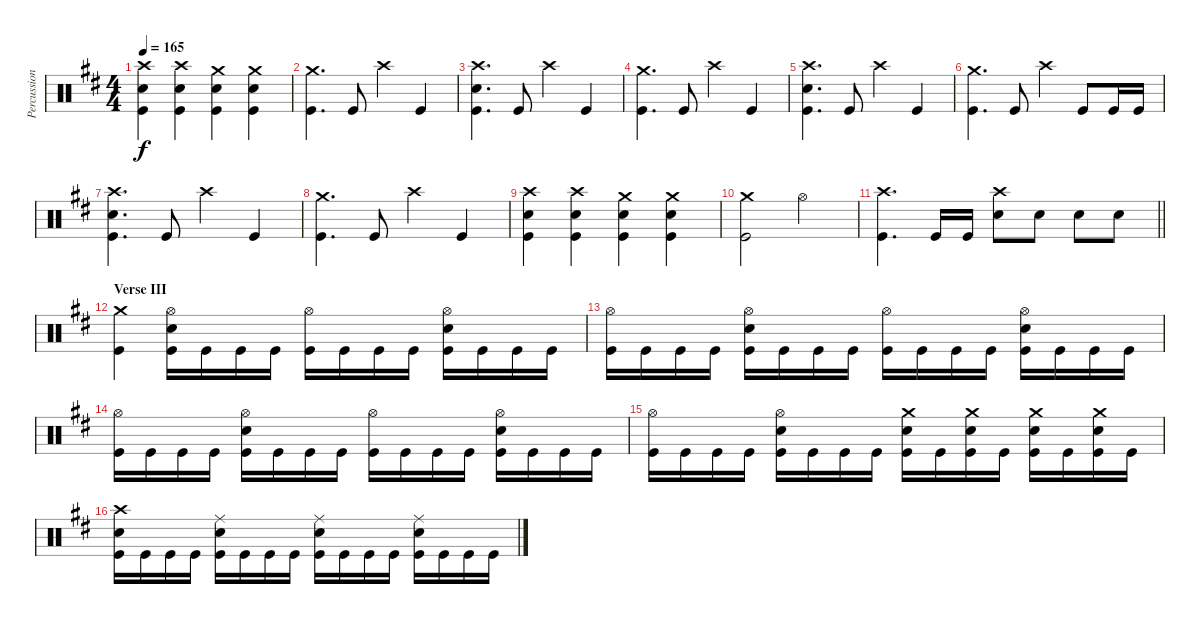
\track ("Percussion" "Percussion") {instrument percussion}
\staff {score}
\articulation defaults
\ts (4 4)
\tempo 165
\clef neutral
\ks d
("Crash high (hit)" "Electric Snare (hit)" "Kick (hit)").4{dy f} ("Crash high (hit)" "Electric Snare (hit)" "Kick (hit)").4 ("Crash medium (hit)" "Electric Snare (hit)" "Kick (hit)").4 ("Crash medium (hit)" "Electric Snare (hit)" "Kick (hit)").4 |
("Crash medium (hit)" "Kick (hit)").4{d} "Kick (hit)".8 "Crash high (hit)".4 "Kick (hit)".4 |
("Crash high (hit)" "Electric Snare (hit)" "Kick (hit)").4{d} "Kick (hit)".8 "Crash high (hit)".4 "Kick (hit)".4 |
("Crash medium (hit)" "Kick (hit)").4{d} "Kick (hit)".8 "Crash high (hit)".4 "Kick (hit)".4 |
("Crash high (hit)" "Electric Snare (hit)" "Kick (hit)").4{d} "Kick (hit)".8 "Crash high (hit)".4 "Kick (hit)".4 |
("Crash medium (hit)" "Kick (hit)").4{d} "Kick (hit)".8 "Crash high (hit)".4 "Kick (hit)".8 "Kick (hit)".16 "Kick (hit)".16 |
("Crash high (hit)" "Electric Snare (hit)" "Kick (hit)").4{d} "Kick (hit)".8 "Crash high (hit)".4 "Kick (hit)".4 |
("Crash medium (hit)" "Kick (hit)").4{d} "Kick (hit)".8 "Crash high (hit)".4 "Kick (hit)".4 |
("Crash high (hit)" "Electric Snare (hit)" "Kick (hit)").4 ("Crash high (hit)" "Electric Snare (hit)" "Kick (hit)").4 ("Crash medium (hit)" "Electric Snare (hit)" "Kick (hit)").4 ("Crash medium (hit)" "Electric Snare (hit)" "Kick (hit)").4 |
("Crash medium (hit)" "Kick (hit)").2 "Hi-Hat (open)".2 |
\barLineRight lightlight
("Crash high (hit)" "Kick (hit)").4{d} "Kick (hit)".16 "Kick (hit)".16 ("Crash high (hit)" "Electric Snare (hit)").8 "Electric Snare (hit)".8 "Electric Snare (hit)".8 "Electric Snare (hit)".8 |
\section ("" "Verse III")
("Crash medium (hit)" "Kick (hit)").4 ("Hi-Hat (open)" "Electric Snare (hit)" "Kick (hit)").16 "Kick (hit)".16 "Kick (hit)".16 "Kick (hit)".16 ("Hi-Hat (open)" "Kick (hit)").16 "Kick (hit)".16 "Kick (hit)".16 "Kick (hit)".16 ("Hi-Hat (open)" "Electric Snare (hit)" "Kick (hit)").16 "Kick (hit)".16 "Kick (hit)".16 "Kick (hit)".16 |
("Hi-Hat (open)" "Kick (hit)").16 "Kick (hit)".16 "Kick (hit)".16 "Kick (hit)".16 ("Hi-Hat (open)" "Electric Snare (hit)" "Kick (hit)").16 "Kick (hit)".16 "Kick (hit)".16 "Kick (hit)".16 ("Hi-Hat (open)" "Kick (hit)").16 "Kick (hit)".16 "Kick (hit)".16 "Kick (hit)".16 ("Hi-Hat (open)" "Electric Snare (hit)" "Kick (hit)").16 "Kick (hit)".16 "Kick (hit)".16 "Kick (hit)".16 |
("Hi-Hat (open)" "Kick (hit)").16 "Kick (hit)".16 "Kick (hit)".16 "Kick (hit)".16 ("Hi-Hat (open)" "Electric Snare (hit)" "Kick (hit)").16 "Kick (hit)".16 "Kick (hit)".16 "Kick (hit)".16 ("Hi-Hat (open)" "Kick (hit)").16 "Kick (hit)".16 "Kick (hit)".16 "Kick (hit)".16 ("Hi-Hat (open)" "Electric Snare (hit)" "Kick (hit)").16 "Kick (hit)".16 "Kick (hit)".16 "Kick (hit)".16 |
("Hi-Hat (open)" "Kick (hit)").16 "Kick (hit)".16 "Kick (hit)".16 "Kick (hit)".16 ("Hi-Hat (open)" "Electric Snare (hit)" "Kick (hit)").16 "Kick (hit)".16 "Kick (hit)".16 "Kick (hit)".16 ("Crash medium (hit)" "Electric Snare (hit)" "Kick (hit)").16 "Kick (hit)".16 ("Crash medium (hit)" "Electric Snare (hit)" "Kick (hit)").16 "Kick (hit)".16 ("Crash medium (hit)" "Electric Snare (hit)" "Kick (hit)").16 "Kick (hit)".16 ("Crash medium (hit)" "Electric Snare (hit)" "Kick (hit)").16 "Kick (hit)".16 |
("Crash high (hit)" "Electric Snare (hit)" "Kick (hit)").16 "Kick (hit)".16 "Kick (hit)".16 "Kick (hit)".16 ("Ride (middle)" "Electric Snare (hit)" "Kick (hit)").16 "Kick (hit)".16 "Kick (hit)".16 "Kick (hit)".16 ("Ride (middle)" "Electric Snare (hit)" "Kick (hit)").16 "Kick (hit)".16 "Kick (hit)".16 "Kick (hit)".16 ("Ride (middle)" "Electric Snare (hit)" "Kick (hit)").16 "Kick (hit)".16 "Kick (hit)".16 "Kick (hit)".16
